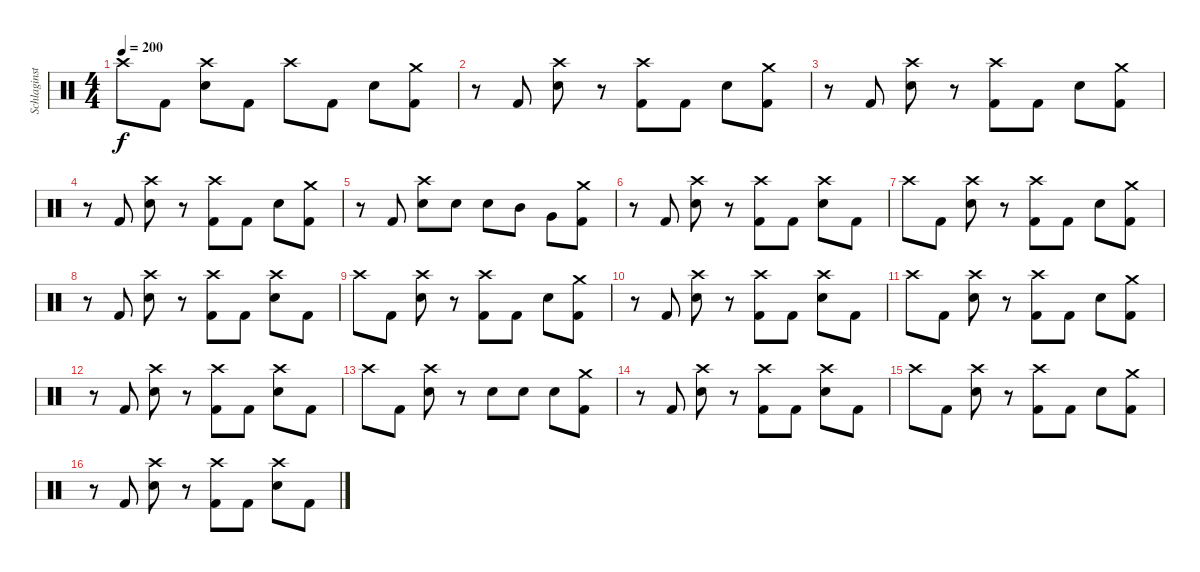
\track ("Schlaginstrumente - Auswahl" "Schlaginst") {instrument percussion}
\staff {score}
\articulation defaults
\ts (4 4)
\tempo 200
\clef neutral
\ks c "Crash high (hit)".8{dy f} "Kick (hit) 2".8
("Crash high (hit)" "Electric Snare (hit)").8 "Kick (hit) 2".8 "Crash high (hit)".8 "Kick (hit) 2".8 "Electric Snare (hit)".8 ("Crash medium (hit)" "Kick (hit) 2").8 |
r.8 "Kick (hit) 2".8 ("Crash high (hit)" "Electric Snare (hit)").8 r.8 ("Crash high (hit)" "Kick (hit) 2").8 "Kick (hit) 2".8 "Electric Snare (hit)".8 ("Crash medium (hit)" "Kick (hit) 2").8 |
r.8 "Kick (hit) 2".8 ("Crash high (hit)" "Electric Snare (hit)").8 r.8 ("Crash high (hit)" "Kick (hit) 2").8 "Kick (hit) 2".8 "Electric Snare (hit)".8 ("Crash medium (hit)" "Kick (hit) 2").8 |
r.8 "Kick (hit) 2".8 ("Crash high (hit)" "Electric Snare (hit)").8 r.8 ("Crash high (hit)" "Kick (hit) 2").8 "Kick (hit) 2".8 "Electric Snare (hit)".8 ("Crash medium (hit)" "Kick (hit) 2").8 |
r.8 "Kick (hit) 2".8 ("Crash high (hit)" "Electric Snare (hit)").8 "Electric Snare (hit)".8 "Electric Snare (hit)".8 "Mid Tom (hit)".8 "Very Low Tom (hit)".8 ("Crash medium (hit)" "Kick (hit) 2").8 |
r.8 "Kick (hit) 2".8 ("Crash high (hit)" "Electric Snare (hit)").8 r.8 ("Crash high (hit)" "Kick (hit) 2").8 "Kick (hit) 2".8 ("Crash high (hit)" "Electric Snare (hit)").8 "Kick (hit) 2".8 |
"Crash high (hit)".8 "Kick (hit) 2".8 ("Crash high (hit)" "Electric Snare (hit)").8 r.8 ("Crash high (hit)" "Kick (hit) 2").8 "Kick (hit) 2".8 "Electric Snare (hit)".8 ("Crash medium (hit)" "Kick (hit) 2").8 |
r.8 "Kick (hit) 2".8 ("Crash high (hit)" "Electric Snare (hit)").8 r.8 ("Crash high (hit)" "Kick (hit) 2").8 "Kick (hit) 2".8 ("Crash high (hit)" "Electric Snare (hit)").8 "Kick (hit) 2".8 |
"Crash high (hit)".8 "Kick (hit) 2".8 ("Crash high (hit)" "Electric Snare (hit)").8 r.8 ("Crash high (hit)" "Kick (hit) 2").8 "Kick (hit) 2".8 "Electric Snare (hit)".8 ("Crash medium (hit)" "Kick (hit) 2").8 |
r.8 "Kick (hit) 2".8 ("Crash high (hit)" "Electric Snare (hit)").8 r.8 ("Crash high (hit)" "Kick (hit) 2").8 "Kick (hit) 2".8 ("Crash high (hit)" "Electric Snare (hit)").8 "Kick (hit) 2".8 |
"Crash high (hit)".8 "Kick (hit) 2".8 ("Crash high (hit)" "Electric Snare (hit)").8 r.8 ("Crash high (hit)" "Kick (hit) 2").8 "Kick (hit) 2".8 "Electric Snare (hit)".8 ("Crash medium (hit)" "Kick (hit) 2").8 |
r.8 "Kick (hit) 2".8 ("Crash high (hit)" "Electric Snare (hit)").8 r.8 ("Crash high (hit)" "Kick (hit) 2").8 "Kick (hit) 2".8 ("Crash high (hit)" "Electric Snare (hit)").8 "Kick (hit) 2".8 |
"Crash high (hit)".8 "Kick (hit) 2".8 ("Crash high (hit)" "Electric Snare (hit)").8 r.8 "Electric Snare (hit)".8 "Electric Snare (hit)".8 "Electric Snare (hit)".8 ("Crash medium (hit)" "Kick (hit) 2").8 |
r.8 "Kick (hit) 2".8 ("Crash high (hit)" "Electric Snare (hit)").8 r.8 ("Crash high (hit)" "Kick (hit) 2").8 "Kick (hit) 2".8 ("Crash high (hit)" "Electric Snare (hit)").8 "Kick (hit) 2".8 |
"Crash high (hit)".8 "Kick (hit) 2".8 ("Crash high (hit)" "Electric Snare (hit)").8 r.8 ("Crash high (hit)" "Kick (hit) 2").8 "Kick (hit) 2".8 "Electric Snare (hit)".8 ("Crash medium (hit)" "Kick (hit) 2").8 |
r.8 "Kick (hit) 2".8 ("Crash high (hit)" "Electric Snare (hit)").8 r.8 ("Crash high (hit)" "Kick (hit) 2").8 "Kick (hit) 2".8 ("Crash high (hit)" "Electric Snare (hit)").8 "Kick (hit) 2".8
